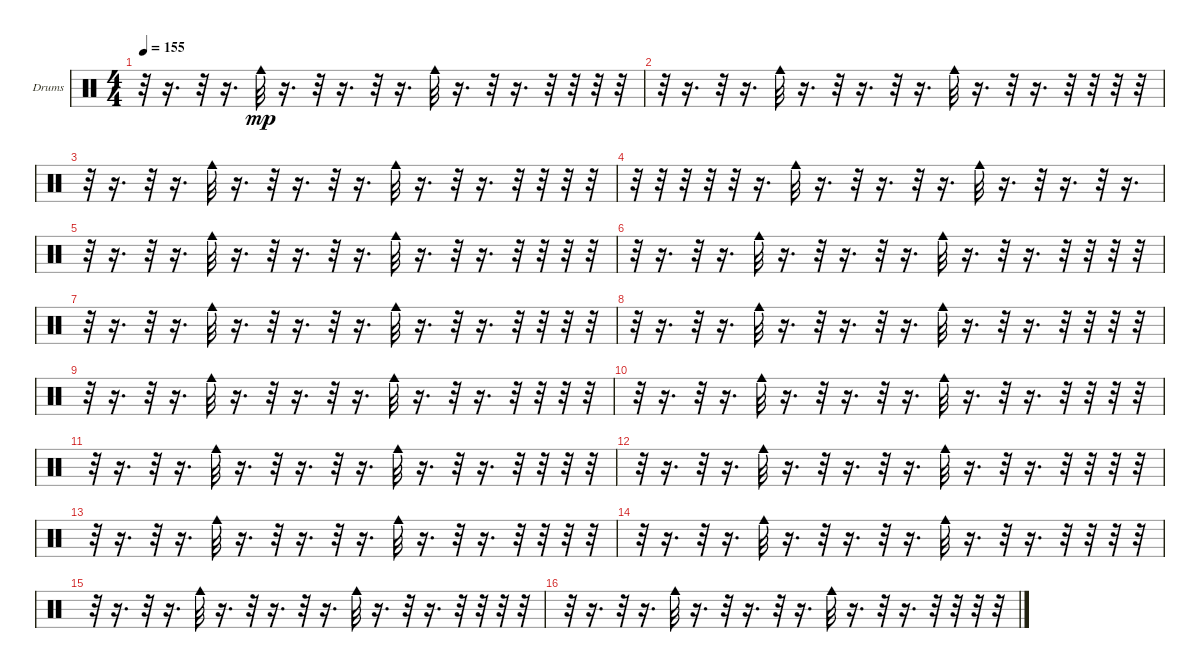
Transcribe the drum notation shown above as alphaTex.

\bracketExtendMode groupsimilarinstruments
\firstSystemTrackNameOrientation horizontal
\otherSystemsTrackNameOrientation horizontal
\track ("Е. Кулаков" "Drums") {instrument percussion}
\staff {score}
\articulation defaults
\ts (4 4)
\tempo 155
\clef neutral
\ks c
r.32{dy mp} r.16{d} r.32 r.16{d} "Cowbell medium (hit)".32 r.16{d} r.32 r.16{d} r.32 r.16{d} "Cowbell medium (hit)".32 r.16{d} r.32 r.16{d} r.32 r.32 r.32 r.32 |
r.32 r.16{d} r.32 r.16{d} "Cowbell medium (hit)".32 r.16{d} r.32 r.16{d} r.32 r.16{d} "Cowbell medium (hit)".32 r.16{d} r.32 r.16{d} r.32 r.32 r.32 r.32 |
r.32 r.16{d} r.32 r.16{d} "Cowbell medium (hit)".32 r.16{d} r.32 r.16{d} r.32 r.16{d} "Cowbell medium (hit)".32 r.16{d} r.32 r.16{d} r.32 r.32 r.32 r.32 |
r.32 r.32 r.32 r.32 r.32 r.16{d} "Cowbell medium (hit)".32 r.16{d} r.32 r.16{d} r.32 r.16{d} "Cowbell medium (hit)".32 r.16{d} r.32 r.16{d} r.32 r.16{d} |
r.32 r.16{d} r.32 r.16{d} "Cowbell medium (hit)".32 r.16{d} r.32 r.16{d} r.32 r.16{d} "Cowbell medium (hit)".32 r.16{d} r.32 r.16{d} r.32 r.32 r.32 r.32 |
r.32 r.16{d} r.32 r.16{d} "Cowbell medium (hit)".32 r.16{d} r.32 r.16{d} r.32 r.16{d} "Cowbell medium (hit)".32 r.16{d} r.32 r.16{d} r.32 r.32 r.32 r.32 |
r.32 r.16{d} r.32 r.16{d} "Cowbell medium (hit)".32 r.16{d} r.32 r.16{d} r.32 r.16{d} "Cowbell medium (hit)".32 r.16{d} r.32 r.16{d} r.32 r.32 r.32 r.32 |
r.32 r.16{d} r.32 r.16{d} "Cowbell medium (hit)".32 r.16{d} r.32 r.16{d} r.32 r.16{d} "Cowbell medium (hit)".32 r.16{d} r.32 r.16{d} r.32 r.32 r.32 r.32 |
r.32 r.16{d} r.32 r.16{d} "Cowbell medium (hit)".32 r.16{d} r.32 r.16{d} r.32 r.16{d} "Cowbell medium (hit)".32 r.16{d} r.32 r.16{d} r.32 r.32 r.32 r.32 |
r.32 r.16{d} r.32 r.16{d} "Cowbell medium (hit)".32 r.16{d} r.32 r.16{d} r.32 r.16{d} "Cowbell medium (hit)".32 r.16{d} r.32 r.16{d} r.32 r.32 r.32 r.32 |
r.32 r.16{d} r.32 r.16{d} "Cowbell medium (hit)".32 r.16{d} r.32 r.16{d} r.32 r.16{d} "Cowbell medium (hit)".32 r.16{d} r.32 r.16{d} r.32 r.32 r.32 r.32 |
r.32 r.16{d} r.32 r.16{d} "Cowbell medium (hit)".32 r.16{d} r.32 r.16{d} r.32 r.16{d} "Cowbell medium (hit)".32 r.16{d} r.32 r.16{d} r.32 r.32 r.32 r.32 |
r.32 r.16{d} r.32 r.16{d} "Cowbell medium (hit)".32 r.16{d} r.32 r.16{d} r.32 r.16{d} "Cowbell medium (hit)".32 r.16{d} r.32 r.16{d} r.32 r.32 r.32 r.32 |
r.32 r.16{d} r.32 r.16{d} "Cowbell medium (hit)".32 r.16{d} r.32 r.16{d} r.32 r.16{d} "Cowbell medium (hit)".32 r.16{d} r.32 r.16{d} r.32 r.32 r.32 r.32 |
r.32 r.16{d} r.32 r.16{d} "Cowbell medium (hit)".32 r.16{d} r.32 r.16{d} r.32 r.16{d} "Cowbell medium (hit)".32 r.16{d} r.32 r.16{d} r.32 r.32 r.32 r.32 |
r.32 r.16{d} r.32 r.16{d} "Cowbell medium (hit)".32 r.16{d} r.32 r.16{d} r.32 r.16{d} "Cowbell medium (hit)".32 r.16{d} r.32 r.16{d} r.32 r.32 r.32 r.32
